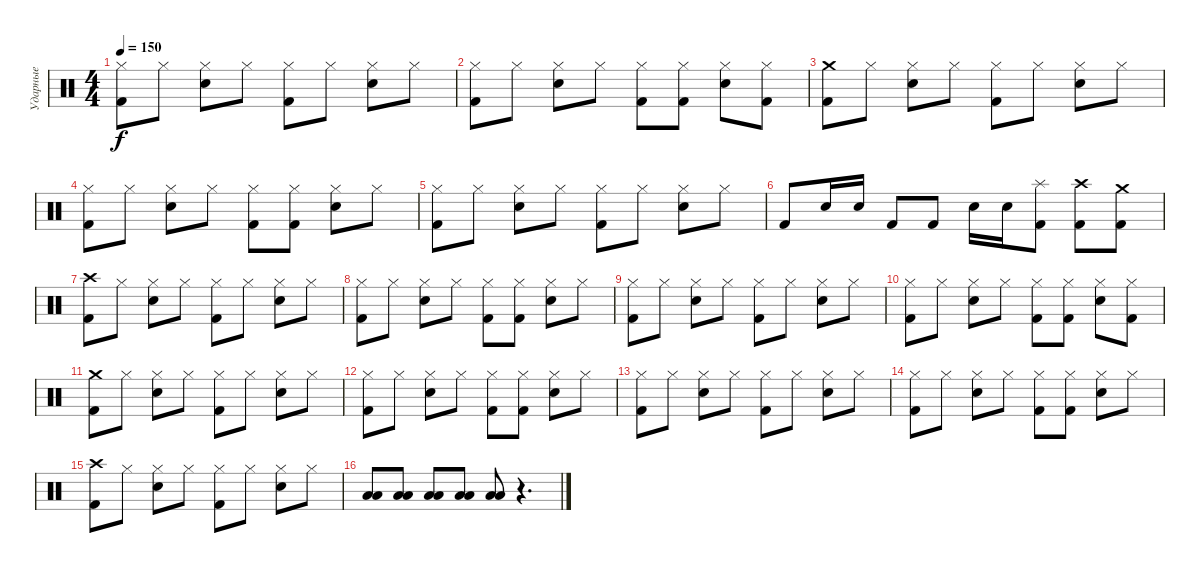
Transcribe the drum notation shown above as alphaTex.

\track ("Ударные" "Ударные") {instrument percussion}
\staff {score}
\articulation defaults
\ts (4 4)
\tempo 150
\clef neutral
\ks c
("Hi-Hat (closed)" "Kick (hit) 2").8{dy f} "Hi-Hat (closed)".8 ("Hi-Hat (closed)" "Snare (hit) 2").8 "Hi-Hat (closed)".8 ("Hi-Hat (closed)" "Kick (hit) 2").8 "Hi-Hat (closed)".8 ("Hi-Hat (closed)" "Snare (hit) 2").8 "Hi-Hat (closed)".8 |
("Hi-Hat (closed)" "Kick (hit) 2").8 "Hi-Hat (closed)".8 ("Hi-Hat (closed)" "Snare (hit) 2").8 "Hi-Hat (closed)".8 ("Hi-Hat (closed)" "Kick (hit) 2").8 ("Hi-Hat (closed)" "Kick (hit) 2").8 ("Hi-Hat (closed)" "Snare (hit) 2").8 ("Hi-Hat (closed)" "Kick (hit) 2").8 |
("Crash medium (hit)" "Kick (hit) 2").8 "Hi-Hat (closed)".8 ("Hi-Hat (closed)" "Snare (hit) 2").8 "Hi-Hat (closed)".8 ("Hi-Hat (closed)" "Kick (hit) 2").8 "Hi-Hat (closed)".8 ("Hi-Hat (closed)" "Snare (hit) 2").8 "Hi-Hat (closed)".8 |
("Hi-Hat (closed)" "Kick (hit) 2").8 "Hi-Hat (closed)".8 ("Hi-Hat (closed)" "Snare (hit) 2").8 "Hi-Hat (closed)".8 ("Hi-Hat (closed)" "Kick (hit) 2").8 ("Hi-Hat (closed)" "Kick (hit) 2").8 ("Hi-Hat (closed)" "Snare (hit) 2").8 "Hi-Hat (closed)".8 |
("Hi-Hat (closed)" "Kick (hit) 2").8 "Hi-Hat (closed)".8 ("Hi-Hat (closed)" "Snare (hit) 2").8 "Hi-Hat (closed)".8 ("Hi-Hat (closed)" "Kick (hit) 2").8 "Hi-Hat (closed)".8 ("Hi-Hat (closed)" "Snare (hit) 2").8 "Hi-Hat (closed)".8 |
"Kick (hit) 2".8 "Snare (hit) 2".16 "Snare (hit) 2".16 "Kick (hit) 2".8 "Kick (hit) 2".8 "Snare (hit) 2".16 "Snare (hit) 2".16 ("Splash (hit)" "Kick (hit) 2").8 ("Crash high (hit)" "Kick (hit) 2").8 ("Crash medium (hit)" "Kick (hit) 2").8 |
("Crash high (hit)" "Kick (hit) 2").8 "Hi-Hat (closed)".8 ("Hi-Hat (closed)" "Snare (hit) 2").8 "Hi-Hat (closed)".8 ("Hi-Hat (closed)" "Kick (hit) 2").8 "Hi-Hat (closed)".8 ("Hi-Hat (closed)" "Snare (hit) 2").8 "Hi-Hat (closed)".8 |
("Hi-Hat (closed)" "Kick (hit) 2").8 "Hi-Hat (closed)".8 ("Hi-Hat (closed)" "Snare (hit) 2").8 "Hi-Hat (closed)".8 ("Hi-Hat (closed)" "Kick (hit) 2").8 ("Hi-Hat (closed)" "Kick (hit) 2").8 ("Hi-Hat (closed)" "Snare (hit) 2").8 "Hi-Hat (closed)".8 |
("Hi-Hat (closed)" "Kick (hit) 2").8 "Hi-Hat (closed)".8 ("Hi-Hat (closed)" "Snare (hit) 2").8 "Hi-Hat (closed)".8 ("Hi-Hat (closed)" "Kick (hit) 2").8 "Hi-Hat (closed)".8 ("Hi-Hat (closed)" "Snare (hit) 2").8 "Hi-Hat (closed)".8 |
("Hi-Hat (closed)" "Kick (hit) 2").8 "Hi-Hat (closed)".8 ("Hi-Hat (closed)" "Snare (hit) 2").8 "Hi-Hat (closed)".8 ("Hi-Hat (closed)" "Kick (hit) 2").8 ("Hi-Hat (closed)" "Kick (hit) 2").8 ("Hi-Hat (closed)" "Snare (hit) 2").8 ("Hi-Hat (closed)" "Kick (hit) 2").8 |
("Crash medium (hit)" "Kick (hit) 2").8 "Hi-Hat (closed)".8 ("Hi-Hat (closed)" "Snare (hit) 2").8 "Hi-Hat (closed)".8 ("Hi-Hat (closed)" "Kick (hit) 2").8 "Hi-Hat (closed)".8 ("Hi-Hat (closed)" "Snare (hit) 2").8 "Hi-Hat (closed)".8 |
("Hi-Hat (closed)" "Kick (hit) 2").8 "Hi-Hat (closed)".8 ("Hi-Hat (closed)" "Snare (hit) 2").8 "Hi-Hat (closed)".8 ("Hi-Hat (closed)" "Kick (hit) 2").8 ("Hi-Hat (closed)" "Kick (hit) 2").8 ("Hi-Hat (closed)" "Snare (hit) 2").8 "Hi-Hat (closed)".8 |
("Hi-Hat (closed)" "Kick (hit) 2").8 "Hi-Hat (closed)".8 ("Hi-Hat (closed)" "Snare (hit) 2").8 "Hi-Hat (closed)".8 ("Hi-Hat (closed)" "Kick (hit) 2").8 "Hi-Hat (closed)".8 ("Hi-Hat (closed)" "Snare (hit) 2").8 "Hi-Hat (closed)".8 |
("Hi-Hat (closed)" "Kick (hit) 2").8 "Hi-Hat (closed)".8 ("Hi-Hat (closed)" "Snare (hit) 2").8 "Hi-Hat (closed)".8 ("Hi-Hat (closed)" "Kick (hit) 2").8 ("Hi-Hat (closed)" "Kick (hit) 2").8 ("Hi-Hat (closed)" "Snare (hit) 2").8 "Hi-Hat (closed)".8 |
("Crash high (hit)" "Kick (hit) 2").8 "Hi-Hat (closed)".8 ("Hi-Hat (closed)" "Snare (hit) 2").8 "Hi-Hat (closed)".8 ("Hi-Hat (closed)" "Kick (hit) 2").8 "Hi-Hat (closed)".8 ("Hi-Hat (closed)" "Snare (hit) 2").8 "Hi-Hat (closed)".8 |
("Low Floor Tom (hit)" "Low Tom (hit)").8 ("Low Floor Tom (hit)" "Low Tom (hit)").8 ("Low Floor Tom (hit)" "Low Tom (hit)").8 ("Low Floor Tom (hit)" "Low Tom (hit)").8 ("Low Floor Tom (hit)" "Low Tom (hit)").8 r.4{d}
